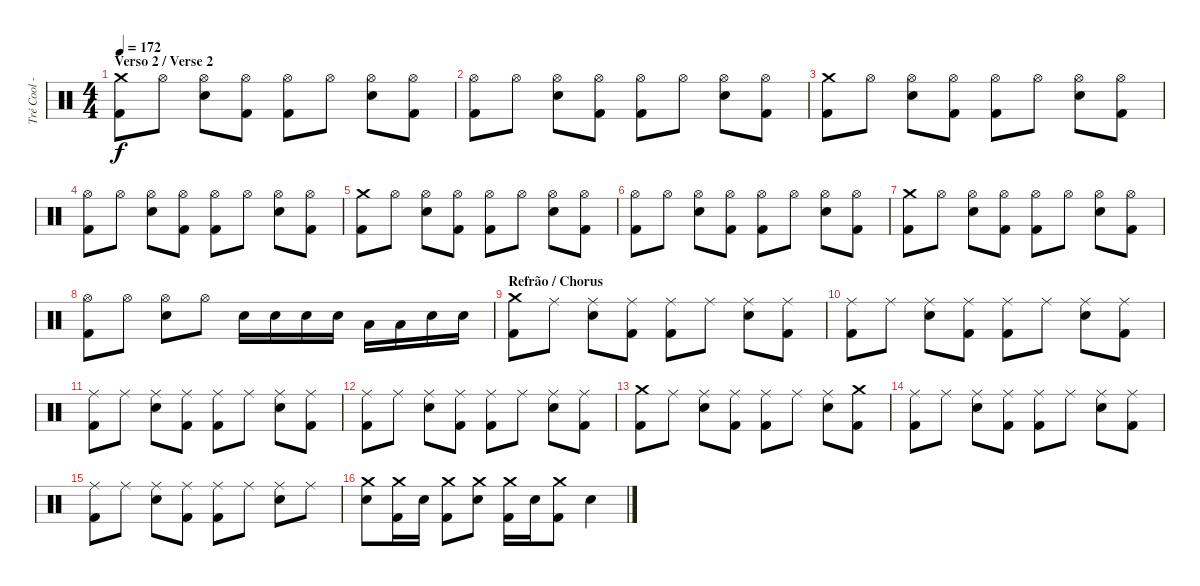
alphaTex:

\track ("Tré Cool - Bateria / Drums" "Tré Cool -") {instrument percussion}
\staff {score}
\articulation defaults
\ts (4 4)
\section ("" "Verso 2 / Verse 2")
\tempo 172
\clef neutral
\ks c
("Crash medium (hit)" "Kick (hit) 2").8{dy f} "Hi-Hat (open)".8 ("Hi-Hat (open)" "Electric Snare (hit)").8 ("Hi-Hat (open)" "Kick (hit) 2").8 ("Hi-Hat (open)" "Kick (hit) 2").8 "Hi-Hat (open)".8 ("Hi-Hat (open)" "Electric Snare (hit)").8 ("Hi-Hat (open)" "Kick (hit) 2").8 |
("Hi-Hat (open)" "Kick (hit) 2").8 "Hi-Hat (open)".8 ("Hi-Hat (open)" "Electric Snare (hit)").8 ("Hi-Hat (open)" "Kick (hit) 2").8 ("Hi-Hat (open)" "Kick (hit) 2").8 "Hi-Hat (open)".8 ("Hi-Hat (open)" "Electric Snare (hit)").8 ("Hi-Hat (open)" "Kick (hit) 2").8 |
("Crash medium (hit)" "Kick (hit) 2").8 "Hi-Hat (open)".8 ("Hi-Hat (open)" "Electric Snare (hit)").8 ("Hi-Hat (open)" "Kick (hit) 2").8 ("Hi-Hat (open)" "Kick (hit) 2").8 "Hi-Hat (open)".8 ("Hi-Hat (open)" "Electric Snare (hit)").8 ("Hi-Hat (open)" "Kick (hit) 2").8 |
("Hi-Hat (open)" "Kick (hit) 2").8 "Hi-Hat (open)".8 ("Hi-Hat (open)" "Electric Snare (hit)").8 ("Hi-Hat (open)" "Kick (hit) 2").8 ("Hi-Hat (open)" "Kick (hit) 2").8 "Hi-Hat (open)".8 ("Hi-Hat (open)" "Electric Snare (hit)").8 ("Hi-Hat (open)" "Kick (hit) 2").8 |
("Crash medium (hit)" "Kick (hit) 2").8 "Hi-Hat (open)".8 ("Hi-Hat (open)" "Electric Snare (hit)").8 ("Hi-Hat (open)" "Kick (hit) 2").8 ("Hi-Hat (open)" "Kick (hit) 2").8 "Hi-Hat (open)".8 ("Hi-Hat (open)" "Electric Snare (hit)").8 ("Hi-Hat (open)" "Kick (hit) 2").8 |
("Hi-Hat (open)" "Kick (hit) 2").8 "Hi-Hat (open)".8 ("Hi-Hat (open)" "Electric Snare (hit)").8 ("Hi-Hat (open)" "Kick (hit) 2").8 ("Hi-Hat (open)" "Kick (hit) 2").8 "Hi-Hat (open)".8 ("Hi-Hat (open)" "Electric Snare (hit)").8 ("Hi-Hat (open)" "Kick (hit) 2").8 |
("Crash medium (hit)" "Kick (hit) 2").8 "Hi-Hat (open)".8 ("Hi-Hat (open)" "Electric Snare (hit)").8 ("Hi-Hat (open)" "Kick (hit) 2").8 ("Hi-Hat (open)" "Kick (hit) 2").8 "Hi-Hat (open)".8 ("Hi-Hat (open)" "Electric Snare (hit)").8 ("Hi-Hat (open)" "Kick (hit) 2").8 |
("Hi-Hat (open)" "Kick (hit) 2").8 "Hi-Hat (open)".8 ("Hi-Hat (open)" "Electric Snare (hit)").8 "Hi-Hat (open)".8 "Electric Snare (hit)".16 "Electric Snare (hit)".16 "Electric Snare (hit)".16 "Electric Snare (hit)".16 "Low Tom (hit)".16 "Low Tom (hit)".16 "Electric Snare (hit)".16 "Electric Snare (hit)".16 |
\section ("" "Refrão / Chorus")
("Crash medium (hit)" "Kick (hit) 2").8 "Ride (middle)".8 ("Ride (middle)" "Electric Snare (hit)").8 ("Ride (middle)" "Kick (hit) 2").8 ("Ride (middle)" "Kick (hit) 2").8 "Ride (middle)".8 ("Ride (middle)" "Electric Snare (hit)").8 ("Ride (middle)" "Kick (hit) 2").8 |
("Ride (middle)" "Kick (hit) 2").8 "Ride (middle)".8 ("Ride (middle)" "Electric Snare (hit)").8 ("Ride (middle)" "Kick (hit) 2").8 ("Ride (middle)" "Kick (hit) 2").8 "Ride (middle)".8 ("Ride (middle)" "Electric Snare (hit)").8 ("Ride (middle)" "Kick (hit) 2").8 |
("Ride (middle)" "Kick (hit) 2").8 "Ride (middle)".8 ("Ride (middle)" "Electric Snare (hit)").8 ("Ride (middle)" "Kick (hit) 2").8 ("Ride (middle)" "Kick (hit) 2").8 "Ride (middle)".8 ("Ride (middle)" "Electric Snare (hit)").8 ("Ride (middle)" "Kick (hit) 2").8 |
("Ride (middle)" "Kick (hit) 2").8 "Ride (middle)".8 ("Ride (middle)" "Electric Snare (hit)").8 ("Ride (middle)" "Kick (hit) 2").8 ("Ride (middle)" "Kick (hit) 2").8 "Ride (middle)".8 ("Ride (middle)" "Electric Snare (hit)").8 ("Ride (middle)" "Kick (hit) 2").8 |
("Crash medium (hit)" "Kick (hit) 2").8 "Ride (middle)".8 ("Ride (middle)" "Electric Snare (hit)").8 ("Ride (middle)" "Kick (hit) 2").8 ("Ride (middle)" "Kick (hit) 2").8 "Ride (middle)".8 ("Ride (middle)" "Electric Snare (hit)").8 ("Crash medium (hit)" "Kick (hit) 2").8 |
("Ride (middle)" "Kick (hit) 2").8 "Ride (middle)".8 ("Ride (middle)" "Electric Snare (hit)").8 ("Ride (middle)" "Kick (hit) 2").8 ("Ride (middle)" "Kick (hit) 2").8 "Ride (middle)".8 ("Ride (middle)" "Electric Snare (hit)").8 ("Ride (middle)" "Kick (hit) 2").8 |
("Ride (middle)" "Kick (hit) 2").8 "Ride (middle)".8 ("Ride (middle)" "Electric Snare (hit)").8 ("Ride (middle)" "Kick (hit) 2").8 ("Ride (middle)" "Kick (hit) 2").8 "Ride (middle)".8 ("Ride (middle)" "Electric Snare (hit)").8 "Ride (middle)".8 |
("Crash medium (hit)" "Electric Snare (hit)").8 ("Crash medium (hit)" "Kick (hit) 2").16 "Electric Snare (hit)".16 ("Crash medium (hit)" "Kick (hit) 2").8 ("Crash medium (hit)" "Electric Snare (hit)").8 ("Crash medium (hit)" "Kick (hit) 2").16 "Electric Snare (hit)".16 ("Crash medium (hit)" "Kick (hit) 2").8 "Electric Snare (hit)".4
